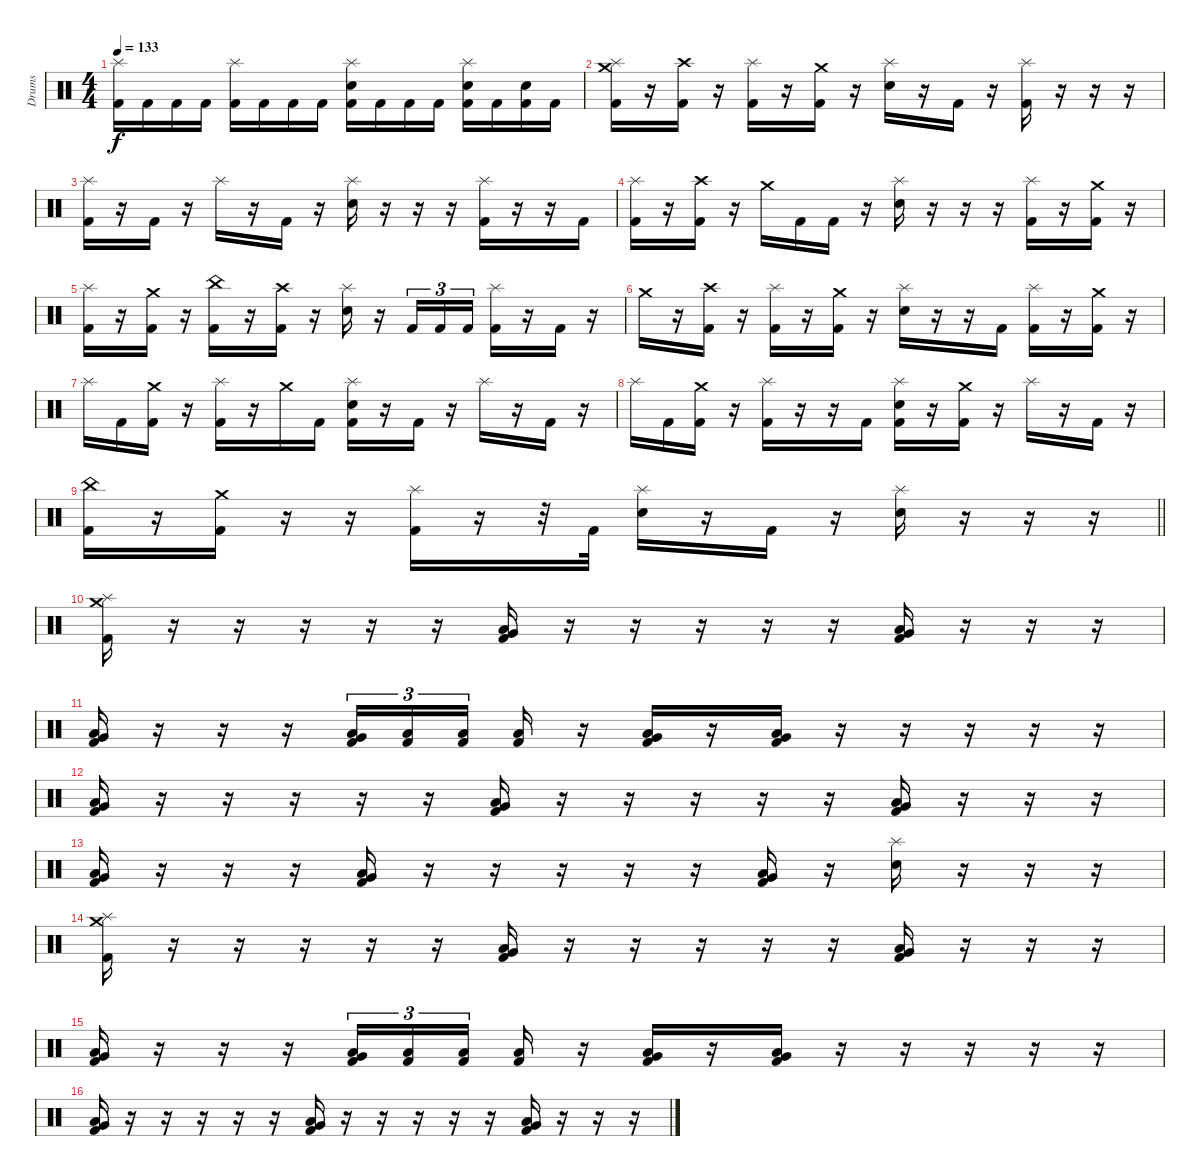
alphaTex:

\track ("Drums" "Drums") {instrument percussion}
\staff {score}
\articulation defaults
\ts (4 4)
\tempo 133
\clef neutral
\ks c
("Splash (hit)" "Kick (hit) 2").16{dy f} "Kick (hit) 2".16 "Kick (hit) 2".16 "Kick (hit) 2".16 ("Splash (hit)" "Kick (hit) 2").16 "Kick (hit) 2".16 "Kick (hit) 2".16 "Kick (hit) 2".16 ("Splash (hit)" "Electric Snare (hit)" "Kick (hit) 2").16 "Kick (hit) 2".16 "Kick (hit) 2".16 "Kick (hit) 2".16 ("Splash (hit)" "Electric Snare (hit)" "Kick (hit) 2").16 "Kick (hit) 2".16 ("Electric Snare (hit)" "Kick (hit) 2").16 "Kick (hit) 2".16 |
("Crash medium (hit)" "Splash (hit)" "Kick (hit) 2").16 r.16 ("Crash high (hit)" "Kick (hit) 2").16 r.16 ("Splash (hit)" "Kick (hit) 2").16 r.16 ("Crash medium (hit)" "Kick (hit) 2").16 r.16 ("Splash (hit)" "Electric Snare (hit)").16 r.16 "Kick (hit) 2".16 r.16 ("Splash (hit)" "Kick (hit) 2").16 r.16 r.16 r.16 |
("Splash (hit)" "Kick (hit) 2").16 r.16 "Kick (hit) 2".16 r.16 "Splash (hit)".16 r.16 "Kick (hit) 2".16 r.16 ("Splash (hit)" "Electric Snare (hit)").16 r.16 r.16 r.16 ("Splash (hit)" "Kick (hit) 2").16 r.16 r.16 "Kick (hit) 2".16 |
("Splash (hit)" "Kick (hit) 2").16 r.16 ("Crash high (hit)" "Kick (hit) 2").16 r.16 "Crash medium (hit)".16 "Kick (hit) 2".16 "Kick (hit) 2".16 r.16 ("Splash (hit)" "Electric Snare (hit)").16 r.16 r.16 r.16 ("Splash (hit)" "Kick (hit) 2").16 r.16 ("Crash medium (hit)" "Kick (hit) 2").16 r.16 |
("Splash (hit)" "Kick (hit) 2").16 r.16 ("Crash medium (hit)" "Kick (hit) 2").16 r.16 ("China (hit)" "Kick (hit) 2").16 r.16 ("Crash high (hit)" "Kick (hit) 2").16 r.16 ("Splash (hit)" "Electric Snare (hit)").16 r.16 "Kick (hit) 2".16{tu (3 2)} "Kick (hit) 2".16{tu (3 2)} "Kick (hit) 2".16{tu (3 2)} ("Splash (hit)" "Kick (hit) 2").16 r.16 "Kick (hit) 2".16 r.16 |
"Crash medium (hit)".16 r.16 ("Crash high (hit)" "Kick (hit) 2").16 r.16 ("Splash (hit)" "Kick (hit) 2").16 r.16 ("Crash medium (hit)" "Kick (hit) 2").16 r.16 ("Splash (hit)" "Electric Snare (hit)").16 r.16 r.16 "Kick (hit) 2".16 ("Splash (hit)" "Kick (hit) 2").16 r.16 ("Crash medium (hit)" "Kick (hit) 2").16 r.16 |
"Splash (hit)".16 "Kick (hit) 2".16 ("Crash medium (hit)" "Kick (hit) 2").16 r.16 ("Splash (hit)" "Kick (hit) 2").16 r.16 "Crash medium (hit)".16 "Kick (hit) 2".16 ("Splash (hit)" "Electric Snare (hit)" "Kick (hit) 2").16 r.16 "Kick (hit) 2".16 r.16 "Splash (hit)".16 r.16 "Kick (hit) 2".16 r.16 |
"Splash (hit)".16 "Kick (hit) 2".16 ("Crash medium (hit)" "Kick (hit) 2").16 r.16 ("Splash (hit)" "Kick (hit) 2").16 r.16 r.16 "Kick (hit) 2".16 ("Splash (hit)" "Electric Snare (hit)" "Kick (hit) 2").16 r.16 ("Crash medium (hit)" "Kick (hit) 2").16 r.16 "Splash (hit)".16 r.16 "Kick (hit) 2".16 r.16 |
\barLineRight lightlight
("China (hit)" "Kick (hit) 2").16 r.16 ("Crash medium (hit)" "Kick (hit) 2").16 r.16 r.16 ("Splash (hit)" "Kick (hit) 2").16 r.16 r.32 "Kick (hit) 2".32 ("Splash (hit)" "Electric Snare (hit)").16 r.16 "Kick (hit) 2".16 r.16 ("Splash (hit)" "Electric Snare (hit)").16 r.16 r.16 r.16 |
\section ("" "")
("Crash medium (hit)" "Splash (hit)" "Kick (hit) 2").16 r.16 r.16 r.16 r.16 r.16 ("Very Low Tom (hit)" "Low Floor Tom (hit)" "Kick (hit) 2").16 r.16 r.16 r.16 r.16 r.16 ("Very Low Tom (hit)" "Low Floor Tom (hit)" "Kick (hit) 2").16 r.16 r.16 r.16 |
("Very Low Tom (hit)" "Low Floor Tom (hit)" "Kick (hit) 2").16 r.16 r.16 r.16 ("Very Low Tom (hit)" "Low Floor Tom (hit)" "Kick (hit) 2").16{tu (3 2)} ("Low Floor Tom (hit)" "Kick (hit) 2").16{tu (3 2)} ("Low Floor Tom (hit)" "Kick (hit) 2").16{tu (3 2) beam splitsecondary} ("Low Floor Tom (hit)" "Kick (hit) 2").16 r.16 ("Very Low Tom (hit)" "Low Floor Tom (hit)" "Kick (hit) 2").16 r.16 ("Very Low Tom (hit)" "Low Floor Tom (hit)" "Kick (hit) 2").16 r.16 r.16 r.16 r.16 r.16 |
("Very Low Tom (hit)" "Low Floor Tom (hit)" "Kick (hit) 2").16 r.16 r.16 r.16 r.16 r.16 ("Very Low Tom (hit)" "Low Floor Tom (hit)" "Kick (hit) 2").16 r.16 r.16 r.16 r.16 r.16 ("Very Low Tom (hit)" "Low Floor Tom (hit)" "Kick (hit) 2").16 r.16 r.16 r.16 |
("Very Low Tom (hit)" "Low Floor Tom (hit)" "Kick (hit) 2").16 r.16 r.16 r.16 ("Very Low Tom (hit)" "Low Floor Tom (hit)" "Kick (hit) 2").16 r.16 r.16 r.16 r.16 r.16 ("Very Low Tom (hit)" "Low Floor Tom (hit)" "Kick (hit) 2").16 r.16 ("Splash (hit)" "Electric Snare (hit)").16 r.16 r.16 r.16 |
("Crash medium (hit)" "Splash (hit)" "Kick (hit) 2").16 r.16 r.16 r.16 r.16 r.16 ("Very Low Tom (hit)" "Low Floor Tom (hit)" "Kick (hit) 2").16 r.16 r.16 r.16 r.16 r.16 ("Very Low Tom (hit)" "Low Floor Tom (hit)" "Kick (hit) 2").16 r.16 r.16 r.16 |
("Very Low Tom (hit)" "Low Floor Tom (hit)" "Kick (hit) 2").16 r.16 r.16 r.16 ("Very Low Tom (hit)" "Low Floor Tom (hit)" "Kick (hit) 2").16{tu (3 2)} ("Low Floor Tom (hit)" "Kick (hit) 2").16{tu (3 2)} ("Low Floor Tom (hit)" "Kick (hit) 2").16{tu (3 2) beam splitsecondary} ("Low Floor Tom (hit)" "Kick (hit) 2").16 r.16 ("Very Low Tom (hit)" "Low Floor Tom (hit)" "Kick (hit) 2").16 r.16 ("Very Low Tom (hit)" "Low Floor Tom (hit)" "Kick (hit) 2").16 r.16 r.16 r.16 r.16 r.16 |
("Very Low Tom (hit)" "Low Floor Tom (hit)" "Kick (hit) 2").16 r.16 r.16 r.16 r.16 r.16 ("Very Low Tom (hit)" "Low Floor Tom (hit)" "Kick (hit) 2").16 r.16 r.16 r.16 r.16 r.16 ("Very Low Tom (hit)" "Low Floor Tom (hit)" "Kick (hit) 2").16 r.16 r.16 r.16
